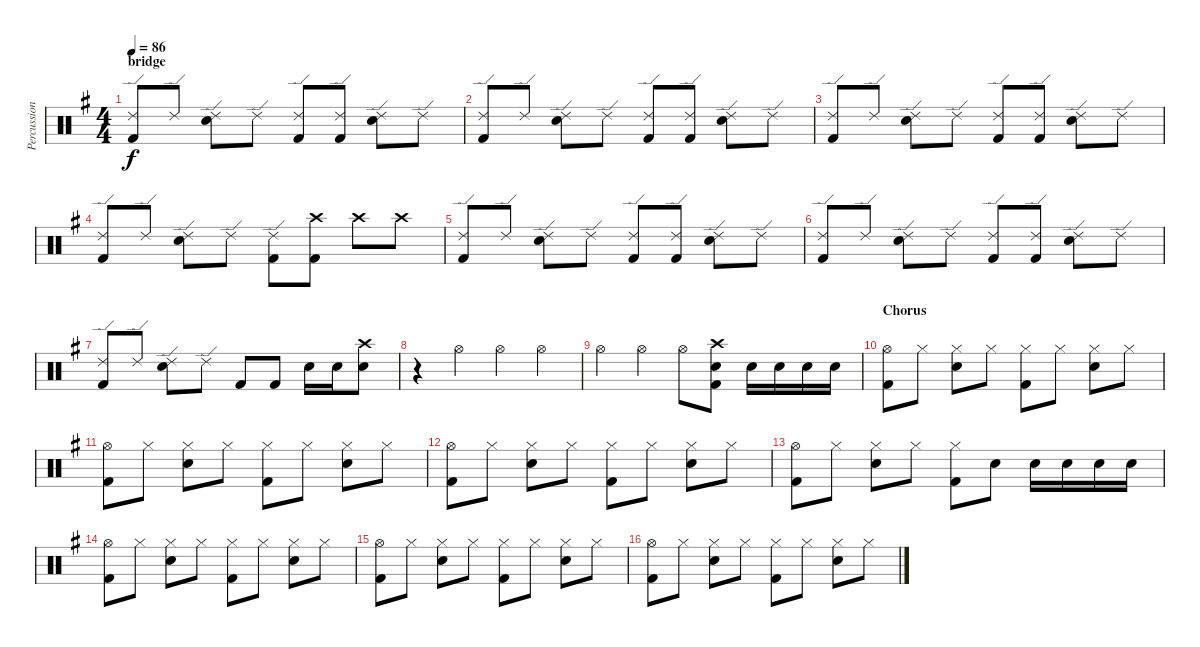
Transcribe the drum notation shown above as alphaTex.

\track ("Percussion" "Percussion") {instrument percussion}
\staff {score}
\articulation defaults
\ts (4 4)
\section ("" "bridge")
\tempo 86
\clef neutral
\ks eminor
("Ride (edge) 2" "Kick (hit) 2").8{dy f} "Ride (edge) 2".8 ("Ride (edge) 2" "Snare (hit) 2").8 "Ride (edge) 2".8 ("Ride (edge) 2" "Kick (hit) 2").8 ("Ride (edge) 2" "Kick (hit) 2").8 ("Ride (edge) 2" "Snare (hit) 2").8 "Ride (edge) 2".8 |
("Ride (edge) 2" "Kick (hit) 2").8 "Ride (edge) 2".8 ("Ride (edge) 2" "Snare (hit) 2").8 "Ride (edge) 2".8 ("Ride (edge) 2" "Kick (hit) 2").8 ("Ride (edge) 2" "Kick (hit) 2").8 ("Ride (edge) 2" "Snare (hit) 2").8 "Ride (edge) 2".8 |
("Ride (edge) 2" "Kick (hit) 2").8 "Ride (edge) 2".8 ("Ride (edge) 2" "Snare (hit) 2").8 "Ride (edge) 2".8 ("Ride (edge) 2" "Kick (hit) 2").8 ("Ride (edge) 2" "Kick (hit) 2").8 ("Ride (edge) 2" "Snare (hit) 2").8 "Ride (edge) 2".8 |
("Ride (edge) 2" "Kick (hit) 2").8 "Ride (edge) 2".8 ("Ride (edge) 2" "Snare (hit) 2").8 "Ride (edge) 2".8 ("Ride (edge) 2" "Kick (hit) 2").8 ("Crash high (hit)" "Kick (hit) 2").8 "Crash high (hit)".8 "Crash high (hit)".8 |
("Ride (edge) 2" "Kick (hit) 2").8 "Ride (edge) 2".8 ("Ride (edge) 2" "Snare (hit) 2").8 "Ride (edge) 2".8 ("Ride (edge) 2" "Kick (hit) 2").8 ("Ride (edge) 2" "Kick (hit) 2").8 ("Ride (edge) 2" "Snare (hit) 2").8 "Ride (edge) 2".8 |
("Ride (edge) 2" "Kick (hit) 2").8 "Ride (edge) 2".8 ("Ride (edge) 2" "Snare (hit) 2").8 "Ride (edge) 2".8 ("Ride (edge) 2" "Kick (hit) 2").8 ("Ride (edge) 2" "Kick (hit) 2").8 ("Ride (edge) 2" "Snare (hit) 2").8 "Ride (edge) 2".8 |
("Ride (edge) 2" "Kick (hit) 2").8 "Ride (edge) 2".8 ("Ride (edge) 2" "Snare (hit) 2").8 "Ride (edge) 2".8 "Kick (hit) 2".8 "Kick (hit) 2".8 "Snare (hit) 2".16 "Snare (hit) 2".16 ("Crash high (hit)" "Electric Snare (hit)").8 |
r.4 "Hi-Hat (open)".4 "Hi-Hat (open)".4 "Hi-Hat (open)".4 |
"Hi-Hat (open)".4 "Hi-Hat (open)".4 "Hi-Hat (open)".8 ("Crash high (hit)" "Kick (hit) 2" "Snare (hit) 2").8 "Snare (hit) 2".16 "Snare (hit) 2".16 "Snare (hit) 2".16 "Snare (hit) 2".16 |
\section ("" "Chorus")
("Hi-Hat (open)" "Kick (hit) 2").8 "Hi-Hat (closed)".8 ("Hi-Hat (closed)" "Snare (hit) 2").8 "Hi-Hat (closed)".8 ("Hi-Hat (closed)" "Kick (hit) 2").8 "Hi-Hat (closed)".8 ("Hi-Hat (closed)" "Snare (hit) 2").8 "Hi-Hat (closed)".8 |
("Hi-Hat (open)" "Kick (hit) 2").8 "Hi-Hat (closed)".8 ("Hi-Hat (closed)" "Snare (hit) 2").8 "Hi-Hat (closed)".8 ("Hi-Hat (closed)" "Kick (hit) 2").8 "Hi-Hat (closed)".8 ("Hi-Hat (closed)" "Snare (hit) 2").8 "Hi-Hat (closed)".8 |
("Hi-Hat (open)" "Kick (hit) 2").8 "Hi-Hat (closed)".8 ("Hi-Hat (closed)" "Snare (hit) 2").8 "Hi-Hat (closed)".8 ("Hi-Hat (closed)" "Kick (hit) 2").8 "Hi-Hat (closed)".8 ("Hi-Hat (closed)" "Snare (hit) 2").8 "Hi-Hat (closed)".8 |
("Hi-Hat (open)" "Kick (hit) 2").8 "Hi-Hat (closed)".8 ("Hi-Hat (closed)" "Snare (hit) 2").8 "Hi-Hat (closed)".8 ("Hi-Hat (closed)" "Kick (hit) 2").8 "Snare (hit) 2".8 "Snare (hit) 2".16 "Snare (hit) 2".16 "Snare (hit) 2".16 "Snare (hit) 2".16 |
("Hi-Hat (open)" "Kick (hit) 2").8 "Hi-Hat (closed)".8 ("Hi-Hat (closed)" "Snare (hit) 2").8 "Hi-Hat (closed)".8 ("Hi-Hat (closed)" "Kick (hit) 2").8 "Hi-Hat (closed)".8 ("Hi-Hat (closed)" "Snare (hit) 2").8 "Hi-Hat (closed)".8 |
("Hi-Hat (open)" "Kick (hit) 2").8 "Hi-Hat (closed)".8 ("Hi-Hat (closed)" "Snare (hit) 2").8 "Hi-Hat (closed)".8 ("Hi-Hat (closed)" "Kick (hit) 2").8 "Hi-Hat (closed)".8 ("Hi-Hat (closed)" "Snare (hit) 2").8 "Hi-Hat (closed)".8 |
("Hi-Hat (open)" "Kick (hit) 2").8 "Hi-Hat (closed)".8 ("Hi-Hat (closed)" "Snare (hit) 2").8 "Hi-Hat (closed)".8 ("Hi-Hat (closed)" "Kick (hit) 2").8 "Hi-Hat (closed)".8 ("Hi-Hat (closed)" "Snare (hit) 2").8 "Hi-Hat (closed)".8
